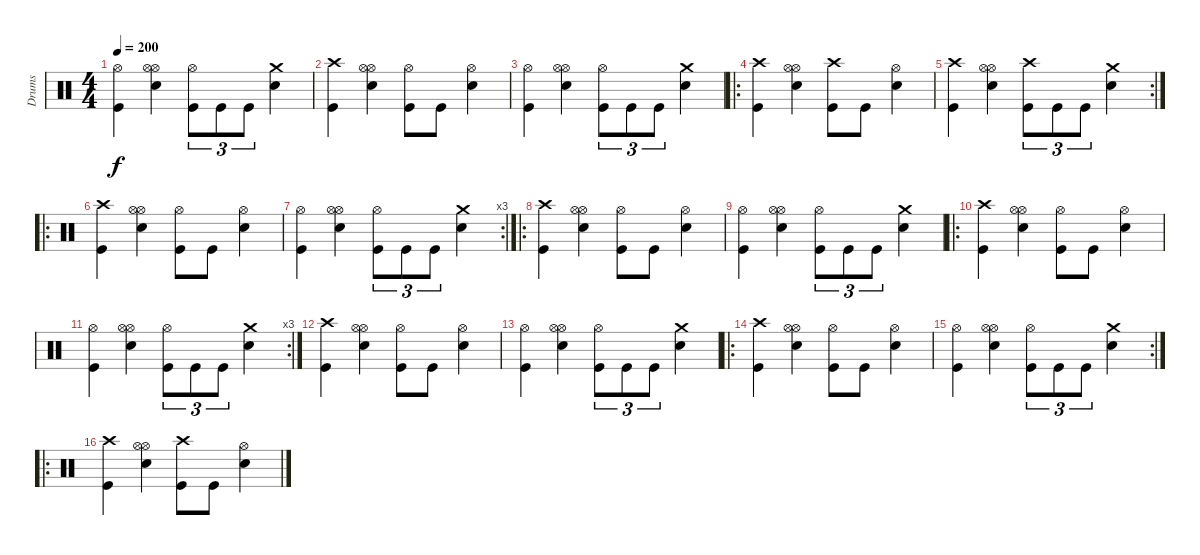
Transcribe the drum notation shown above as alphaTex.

\track ("Drums" "Drums") {instrument percussion}
\staff {score}
\articulation defaults
\ts (4 4)
\tempo 200
\clef neutral
\ks c
("Hi-Hat (open)" "Kick (hit)").4{dy f} ("Hi-Hat (open)" "Snare (hit) 2" "Hi-Hat (open)").4 ("Hi-Hat (open)" "Kick (hit)").8{tu (3 2)} "Kick (hit)".8{tu (3 2)} "Kick (hit)".8{tu (3 2)} ("Crash medium (hit)" "Snare (hit) 2").4 |
("Crash high (hit)" "Kick (hit)").4 ("Hi-Hat (open)" "Snare (hit) 2" "Hi-Hat (open)").4 ("Hi-Hat (open)" "Kick (hit)").8 "Kick (hit)".8 ("Hi-Hat (open)" "Snare (hit) 2").4 |
("Hi-Hat (open)" "Kick (hit)").4 ("Hi-Hat (open)" "Snare (hit) 2" "Hi-Hat (open)").4 ("Hi-Hat (open)" "Kick (hit)").8{tu (3 2)} "Kick (hit)".8{tu (3 2)} "Kick (hit)".8{tu (3 2)} ("Crash medium (hit)" "Snare (hit) 2").4 |
\ro
("Crash high (hit)" "Kick (hit)").4 ("Hi-Hat (open)" "Snare (hit) 2" "Hi-Hat (open)").4 ("Crash high (hit)" "Kick (hit)").8 "Kick (hit)".8 ("Hi-Hat (open)" "Snare (hit) 2").4 |
\rc 2
("Crash high (hit)" "Kick (hit)").4 ("Hi-Hat (open)" "Snare (hit) 2" "Hi-Hat (open)").4 ("Crash high (hit)" "Kick (hit)").8{tu (3 2)} "Kick (hit)".8{tu (3 2)} "Kick (hit)".8{tu (3 2)} ("Crash medium (hit)" "Snare (hit) 2").4 |
\ro
("Crash high (hit)" "Kick (hit)").4 ("Hi-Hat (open)" "Snare (hit) 2" "Hi-Hat (open)").4 ("Hi-Hat (open)" "Kick (hit)").8 "Kick (hit)".8 ("Hi-Hat (open)" "Snare (hit) 2").4 |
\rc 3
("Hi-Hat (open)" "Kick (hit)").4 ("Hi-Hat (open)" "Snare (hit) 2" "Hi-Hat (open)").4 ("Hi-Hat (open)" "Kick (hit)").8{tu (3 2)} "Kick (hit)".8{tu (3 2)} "Kick (hit)".8{tu (3 2)} ("Crash medium (hit)" "Snare (hit) 2").4 |
\ro
("Crash high (hit)" "Kick (hit)").4 ("Hi-Hat (open)" "Snare (hit) 2" "Hi-Hat (open)").4 ("Hi-Hat (open)" "Kick (hit)").8 "Kick (hit)".8 ("Hi-Hat (open)" "Snare (hit) 2").4 |
("Hi-Hat (open)" "Kick (hit)").4 ("Hi-Hat (open)" "Snare (hit) 2" "Hi-Hat (open)").4 ("Hi-Hat (open)" "Kick (hit)").8{tu (3 2)} "Kick (hit)".8{tu (3 2)} "Kick (hit)".8{tu (3 2)} ("Crash medium (hit)" "Snare (hit) 2").4 |
\ro
("Crash high (hit)" "Kick (hit)").4 ("Hi-Hat (open)" "Snare (hit) 2" "Hi-Hat (open)").4 ("Hi-Hat (open)" "Kick (hit)").8 "Kick (hit)".8 ("Hi-Hat (open)" "Snare (hit) 2").4 |
\rc 3
("Hi-Hat (open)" "Kick (hit)").4 ("Hi-Hat (open)" "Snare (hit) 2" "Hi-Hat (open)").4 ("Hi-Hat (open)" "Kick (hit)").8{tu (3 2)} "Kick (hit)".8{tu (3 2)} "Kick (hit)".8{tu (3 2)} ("Crash medium (hit)" "Snare (hit) 2").4 |
("Crash high (hit)" "Kick (hit)").4 ("Hi-Hat (open)" "Snare (hit) 2" "Hi-Hat (open)").4 ("Hi-Hat (open)" "Kick (hit)").8 "Kick (hit)".8 ("Hi-Hat (open)" "Snare (hit) 2").4 |
("Hi-Hat (open)" "Kick (hit)").4 ("Hi-Hat (open)" "Snare (hit) 2" "Hi-Hat (open)").4 ("Hi-Hat (open)" "Kick (hit)").8{tu (3 2)} "Kick (hit)".8{tu (3 2)} "Kick (hit)".8{tu (3 2)} ("Crash medium (hit)" "Snare (hit) 2").4 |
\ro
("Crash high (hit)" "Kick (hit)").4 ("Hi-Hat (open)" "Snare (hit) 2" "Hi-Hat (open)").4 ("Hi-Hat (open)" "Kick (hit)").8 "Kick (hit)".8 ("Hi-Hat (open)" "Snare (hit) 2").4 |
\rc 2
("Hi-Hat (open)" "Kick (hit)").4 ("Hi-Hat (open)" "Snare (hit) 2" "Hi-Hat (open)").4 ("Hi-Hat (open)" "Kick (hit)").8{tu (3 2)} "Kick (hit)".8{tu (3 2)} "Kick (hit)".8{tu (3 2)} ("Crash medium (hit)" "Snare (hit) 2").4 |
\ro
("Crash high (hit)" "Kick (hit)").4 ("Hi-Hat (open)" "Snare (hit) 2" "Hi-Hat (open)").4 ("Crash high (hit)" "Kick (hit)").8 "Kick (hit)".8 ("Hi-Hat (open)" "Snare (hit) 2").4
